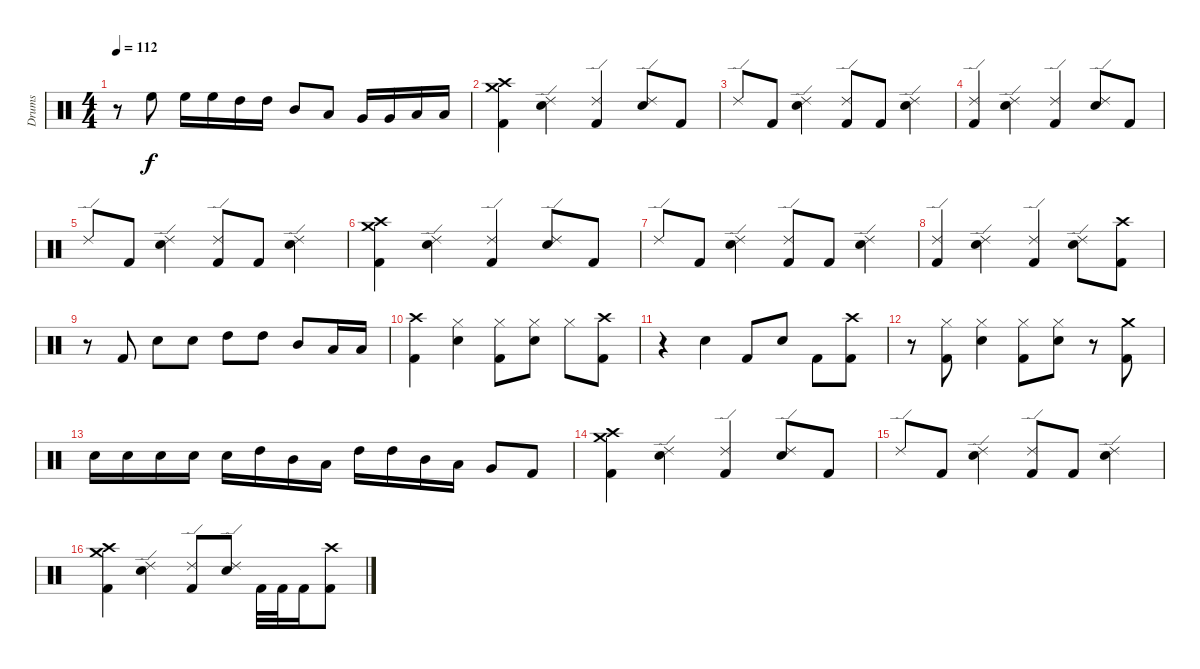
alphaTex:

\track ("Drums" "Drums") {instrument percussion}
\staff {score}
\articulation defaults
\ts (4 4)
\tempo 112
\clef neutral
\ks c
r.8{dy f} "High Floor Tom (hit)".8 "High Floor Tom (hit)".16 "High Floor Tom (hit)".16 "High Tom (hit)".16 "High Tom (hit)".16 "Mid Tom (hit)".8 "Low Tom (hit)".8 "Very Low Tom (hit)".16 "Very Low Tom (hit)".16 "Low Floor Tom (hit)".16 "Low Floor Tom (hit)".16 |
("Crash medium (hit)" "Crash high (hit)" "Kick (hit) 2").4 ("Ride (edge) 2" "Electric Snare (hit)").4 ("Ride (edge) 2" "Kick (hit) 2").4 ("Ride (edge) 2" "Electric Snare (hit)").8 "Kick (hit) 2".8 |
"Ride (edge) 2".8 "Kick (hit) 2".8 ("Ride (edge) 2" "Electric Snare (hit)").4 ("Ride (edge) 2" "Kick (hit) 2").8 "Kick (hit) 2".8 ("Ride (edge) 2" "Electric Snare (hit)").4 |
("Ride (edge) 2" "Kick (hit) 2").4 ("Ride (edge) 2" "Electric Snare (hit)").4 ("Ride (edge) 2" "Kick (hit) 2").4 ("Ride (edge) 2" "Electric Snare (hit)").8 "Kick (hit) 2".8 |
"Ride (edge) 2".8 "Kick (hit) 2".8 ("Ride (edge) 2" "Electric Snare (hit)").4 ("Ride (edge) 2" "Kick (hit) 2").8 "Kick (hit) 2".8 ("Ride (edge) 2" "Electric Snare (hit)").4 |
("Crash medium (hit)" "Crash high (hit)" "Kick (hit) 2").4 ("Ride (edge) 2" "Electric Snare (hit)").4 ("Ride (edge) 2" "Kick (hit) 2").4 ("Ride (edge) 2" "Electric Snare (hit)").8 "Kick (hit) 2".8 |
"Ride (edge) 2".8 "Kick (hit) 2".8 ("Ride (edge) 2" "Electric Snare (hit)").4 ("Ride (edge) 2" "Kick (hit) 2").8 "Kick (hit) 2".8 ("Ride (edge) 2" "Electric Snare (hit)").4 |
("Ride (edge) 2" "Kick (hit) 2").4 ("Ride (edge) 2" "Electric Snare (hit)").4 ("Ride (edge) 2" "Kick (hit) 2").4 ("Ride (edge) 2" "Electric Snare (hit)").8 ("Crash high (hit)" "Kick (hit) 2").8 |
r.8 "Kick (hit) 2".8 "Electric Snare (hit)".8 "Electric Snare (hit)".8 "High Tom (hit)".8 "High Tom (hit)".8 "Mid Tom (hit)".8 "Low Tom (hit)".16 "Low Tom (hit)".16 |
("Crash high (hit)" "Kick (hit) 2").4 ("Hi-Hat (closed)" "Electric Snare (hit)").4 ("Hi-Hat (closed)" "Kick (hit) 2").8 ("Hi-Hat (closed)" "Electric Snare (hit)").8 "Hi-Hat (closed)".8 ("Crash high (hit)" "Kick (hit) 2").8 |
r.4 "Electric Snare (hit)".4 "Kick (hit) 2".8 "Electric Snare (hit)".8 "Kick (hit) 2".8 ("Crash high (hit)" "Kick (hit) 2").8 |
r.8 ("Hi-Hat (closed)" "Kick (hit) 2").8 ("Hi-Hat (closed)" "Electric Snare (hit)").4 ("Hi-Hat (closed)" "Kick (hit) 2").8 ("Hi-Hat (closed)" "Electric Snare (hit)").8 r.8 ("Crash medium (hit)" "Kick (hit) 2").8 |
"Electric Snare (hit)".16 "Electric Snare (hit)".16 "Electric Snare (hit)".16 "Electric Snare (hit)".16 "Electric Snare (hit)".16 "High Tom (hit)".16 "Mid Tom (hit)".16 "Low Tom (hit)".16 "High Tom (hit)".16 "High Tom (hit)".16 "Mid Tom (hit)".16 "Low Tom (hit)".16 "Very Low Tom (hit)".8 "Kick (hit) 2".8 |
("Crash medium (hit)" "Crash high (hit)" "Kick (hit) 2").4 ("Ride (edge) 2" "Electric Snare (hit)").4 ("Ride (edge) 2" "Kick (hit) 2").4 ("Ride (edge) 2" "Electric Snare (hit)").8 "Kick (hit) 2".8 |
"Ride (edge) 2".8 "Kick (hit) 2".8 ("Ride (edge) 2" "Electric Snare (hit)").4 ("Ride (edge) 2" "Kick (hit) 2").8 "Kick (hit) 2".8 ("Ride (edge) 2" "Electric Snare (hit)").4 |
("Crash medium (hit)" "Crash high (hit)" "Kick (hit) 2").4 ("Ride (edge) 2" "Electric Snare (hit)").4 ("Ride (edge) 2" "Kick (hit) 2").8 ("Ride (edge) 2" "Electric Snare (hit)").8 "Kick (hit) 2".32 "Kick (hit) 2".32 "Kick (hit) 2".16 ("Crash high (hit)" "Kick (hit) 2").8
